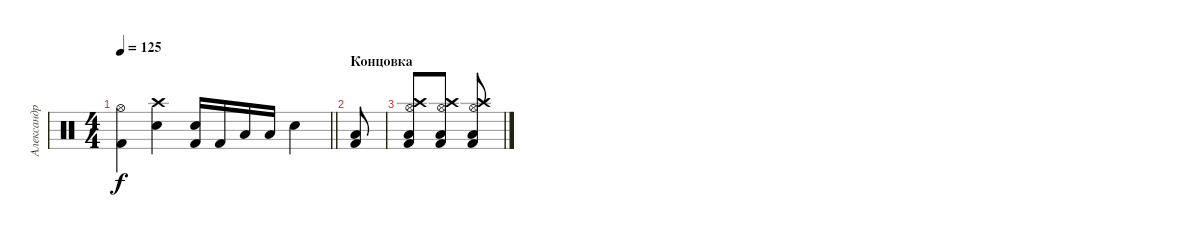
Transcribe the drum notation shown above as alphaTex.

\track ("Александр Манякин" "Александр ") {instrument percussion}
\staff {score}
\articulation defaults
\ts (4 4)
\tempo 125
\clef neutral
\barLineRight lightlight
\ks c
("Kick (hit) 2" "Hi-Hat (open)").4{dy f} ("Snare (hit) 2" "Crash high (hit)").4 ("Kick (hit) 2" "Snare (hit) 2").16 "Kick (hit) 2".16 "Low Floor Tom (hit)".16 "Low Floor Tom (hit)".16 "Snare (hit) 2".4 |
\section ("" "Концовка")
("Low Floor Tom (hit)" "Kick (hit) 2").8 |
("Crash high (hit)" "Low Floor Tom (hit)" "Kick (hit) 2" "Hi-Hat (open)").8 ("Crash high (hit)" "Low Floor Tom (hit)" "Kick (hit) 2" "Hi-Hat (open)").8 ("Crash high (hit)" "Low Floor Tom (hit)" "Kick (hit) 2" "Hi-Hat (open)").8
